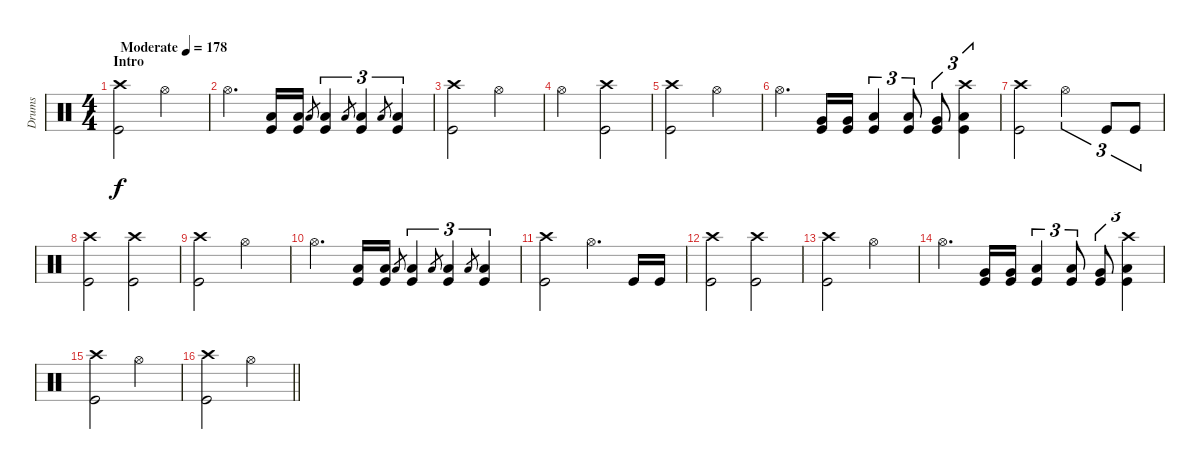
\track ("Drums" "Drums") {instrument percussion}
\staff {score}
\articulation defaults
\ts (4 4)
\section ("" "Intro")
\tempo (178 "Moderate")
\clef neutral
\ks c
("Crash high (hit)" "Kick (hit)").2{dy f} "Hi-Hat (open)".2 |
"Hi-Hat (open)".4{d} ("Kick (hit)" "Low Floor Tom (hit)").16 ("Kick (hit)" "Low Floor Tom (hit)").16 "Low Tom (hit)".8{gr} ("Kick (hit)" "Low Tom (hit)").4{tu (3 2)} "Low Tom (hit)".8{gr} ("Kick (hit)" "Low Tom (hit)").4{tu (3 2)} "Low Tom (hit)".8{gr} ("Kick (hit)" "Low Tom (hit)").4{tu (3 2)} |
("Crash high (hit)" "Kick (hit)").2 "Hi-Hat (open)".2 |
"Hi-Hat (open)".2 ("Crash high (hit)" "Kick (hit)").2 |
("Kick (hit)" "Crash high (hit)").2 "Hi-Hat (open)".2 |
"Hi-Hat (open)".4{d} ("Kick (hit)" "Very Low Tom (hit)").16 ("Kick (hit)" "Very Low Tom (hit)").16 ("Low Tom (hit)" "Kick (hit)").4{tu (3 2)} ("Low Tom (hit)" "Kick (hit)").8{tu (3 2)} ("Very Low Tom (hit)" "Kick (hit)").8{tu (3 2)} ("Low Floor Tom (hit)" "Kick (hit)" "Crash high (hit)").4{tu (3 2)} |
("Crash high (hit)" "Kick (hit)").2 "Hi-Hat (open)".2{tu (3 2)} "Kick (hit)".8{tu (3 2)} "Kick (hit)".8{tu (3 2)} |
("Crash high (hit)" "Kick (hit)").2 ("Crash high (hit)" "Kick (hit)").2 |
("Crash high (hit)" "Kick (hit)").2 "Hi-Hat (open)".2 |
"Hi-Hat (open)".4{d} ("Kick (hit)" "Low Floor Tom (hit)").16 ("Kick (hit)" "Low Floor Tom (hit)").16 "Low Tom (hit)".8{gr} ("Kick (hit)" "Low Tom (hit)").4{tu (3 2)} "Low Tom (hit)".8{gr} ("Kick (hit)" "Low Tom (hit)").4{tu (3 2)} "Low Tom (hit)".8{gr} ("Kick (hit)" "Low Tom (hit)").4{tu (3 2)} |
("Crash high (hit)" "Kick (hit)").2 "Hi-Hat (open)".4{d} "Kick (hit)".16 "Kick (hit)".16 |
("Kick (hit)" "Crash high (hit)").2 ("Crash high (hit)" "Kick (hit)").2 |
("Kick (hit)" "Crash high (hit)").2 "Hi-Hat (open)".2 |
"Hi-Hat (open)".4{d} ("Kick (hit)" "Very Low Tom (hit)").16 ("Kick (hit)" "Very Low Tom (hit)").16 ("Low Tom (hit)" "Kick (hit)").4{tu (3 2)} ("Low Tom (hit)" "Kick (hit)").8{tu (3 2)} ("Very Low Tom (hit)" "Kick (hit)").8{tu (3 2)} ("Low Floor Tom (hit)" "Kick (hit)" "Crash high (hit)").4{tu (3 2)} |
("Crash high (hit)" "Kick (hit)").2 "Hi-Hat (open)".2 |
\barLineRight lightlight
("Crash high (hit)" "Kick (hit)").2 "Hi-Hat (open)".2
